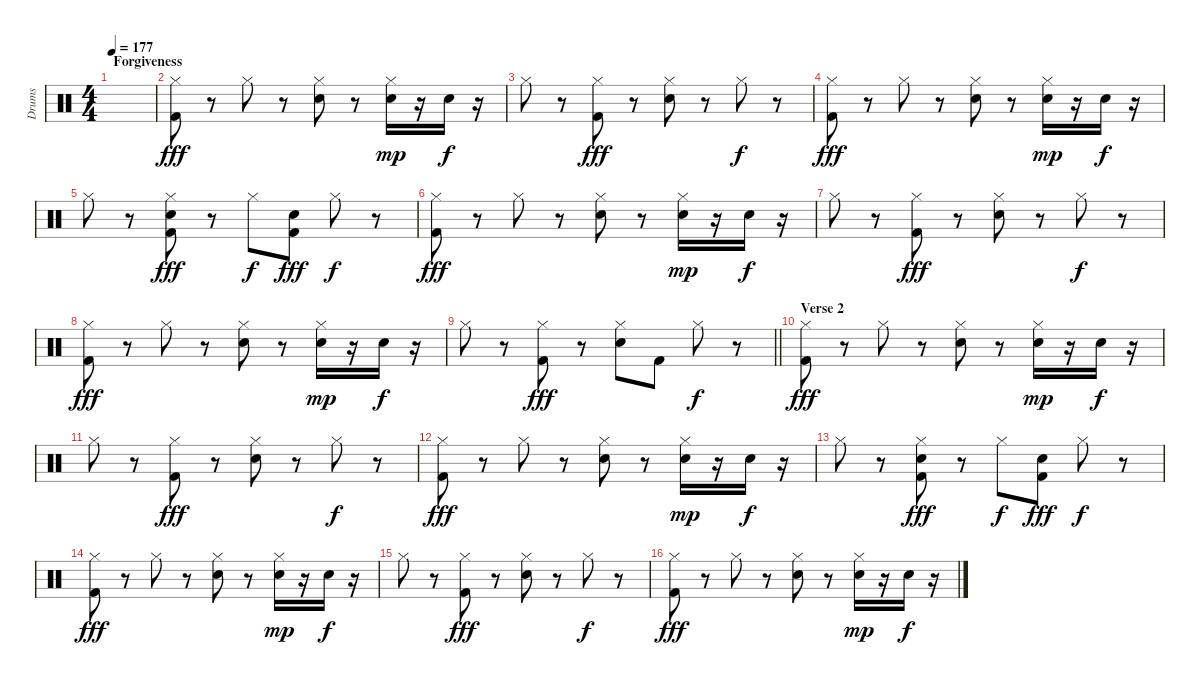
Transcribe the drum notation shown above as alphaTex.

\track ("Drums" "Drums") {instrument percussion}
\staff {score}
\articulation defaults
\ts (4 4)
\section ("" "Forgiveness")
\tempo 177
\clef neutral
\ks c
|
("Hi-Hat (closed)" "Kick (hit) 2").8{dy fff} r.8 "Hi-Hat (closed)".8 r.8 ("Hi-Hat (closed)" "Snare (hit) 2").8 r.8 ("Hi-Hat (closed)" "Snare (hit) 2").16{dy mp} r.16 "Snare (hit) 2".16{dy f} r.16 |
"Hi-Hat (closed)".8 r.8 ("Hi-Hat (closed)" "Kick (hit) 2").8{dy fff} r.8 ("Hi-Hat (closed)" "Snare (hit) 2").8 r.8 "Hi-Hat (closed)".8{dy f} r.8 |
("Hi-Hat (closed)" "Kick (hit) 2").8{dy fff} r.8 "Hi-Hat (closed)".8 r.8 ("Hi-Hat (closed)" "Snare (hit) 2").8 r.8 ("Hi-Hat (closed)" "Snare (hit) 2").16{dy mp} r.16 "Snare (hit) 2".16{dy f} r.16 |
"Hi-Hat (closed)".8 r.8 ("Hi-Hat (closed)" "Snare (hit) 2" "Kick (hit) 2").8{dy fff} r.8 "Hi-Hat (closed)".8{dy f} ("Snare (hit) 2" "Kick (hit) 2").8{dy fff} "Hi-Hat (closed)".8{dy f} r.8 |
("Hi-Hat (closed)" "Kick (hit) 2").8{dy fff} r.8 "Hi-Hat (closed)".8 r.8 ("Hi-Hat (closed)" "Snare (hit) 2").8 r.8 ("Hi-Hat (closed)" "Snare (hit) 2").16{dy mp} r.16 "Snare (hit) 2".16{dy f} r.16 |
"Hi-Hat (closed)".8 r.8 ("Hi-Hat (closed)" "Kick (hit) 2").8{dy fff} r.8 ("Hi-Hat (closed)" "Snare (hit) 2").8 r.8 "Hi-Hat (closed)".8{dy f} r.8 |
("Hi-Hat (closed)" "Kick (hit) 2").8{dy fff} r.8 "Hi-Hat (closed)".8 r.8 ("Hi-Hat (closed)" "Snare (hit) 2").8 r.8 ("Hi-Hat (closed)" "Snare (hit) 2").16{dy mp} r.16 "Snare (hit) 2".16{dy f} r.16 |
\barLineRight lightlight "Hi-Hat (closed)".8
r.8 ("Hi-Hat (closed)" "Kick (hit) 2").8{dy fff} r.8 ("Hi-Hat (closed)" "Snare (hit) 2").8 "Kick (hit) 2".8 "Hi-Hat (closed)".8{dy f} r.8 |
\section ("" "Verse 2")
("Hi-Hat (closed)" "Kick (hit) 2").8{dy fff} r.8 "Hi-Hat (closed)".8 r.8 ("Hi-Hat (closed)" "Snare (hit) 2").8 r.8 ("Hi-Hat (closed)" "Snare (hit) 2").16{dy mp} r.16 "Snare (hit) 2".16{dy f} r.16 |
"Hi-Hat (closed)".8 r.8 ("Hi-Hat (closed)" "Kick (hit) 2").8{dy fff} r.8 ("Hi-Hat (closed)" "Snare (hit) 2").8 r.8 "Hi-Hat (closed)".8{dy f} r.8 |
("Hi-Hat (closed)" "Kick (hit) 2").8{dy fff} r.8 "Hi-Hat (closed)".8 r.8 ("Hi-Hat (closed)" "Snare (hit) 2").8 r.8 ("Hi-Hat (closed)" "Snare (hit) 2").16{dy mp} r.16 "Snare (hit) 2".16{dy f} r.16 |
"Hi-Hat (closed)".8 r.8 ("Hi-Hat (closed)" "Snare (hit) 2" "Kick (hit) 2").8{dy fff} r.8 "Hi-Hat (closed)".8{dy f} ("Snare (hit) 2" "Kick (hit) 2").8{dy fff} "Hi-Hat (closed)".8{dy f} r.8 |
("Hi-Hat (closed)" "Kick (hit) 2").8{dy fff} r.8 "Hi-Hat (closed)".8 r.8 ("Hi-Hat (closed)" "Snare (hit) 2").8 r.8 ("Hi-Hat (closed)" "Snare (hit) 2").16{dy mp} r.16 "Snare (hit) 2".16{dy f} r.16 |
"Hi-Hat (closed)".8 r.8 ("Hi-Hat (closed)" "Kick (hit) 2").8{dy fff} r.8 ("Hi-Hat (closed)" "Snare (hit) 2").8 r.8 "Hi-Hat (closed)".8{dy f} r.8 |
("Hi-Hat (closed)" "Kick (hit) 2").8{dy fff} r.8 "Hi-Hat (closed)".8 r.8 ("Hi-Hat (closed)" "Snare (hit) 2").8 r.8 ("Hi-Hat (closed)" "Snare (hit) 2").16{dy mp} r.16 "Snare (hit) 2".16{dy f} r.16
